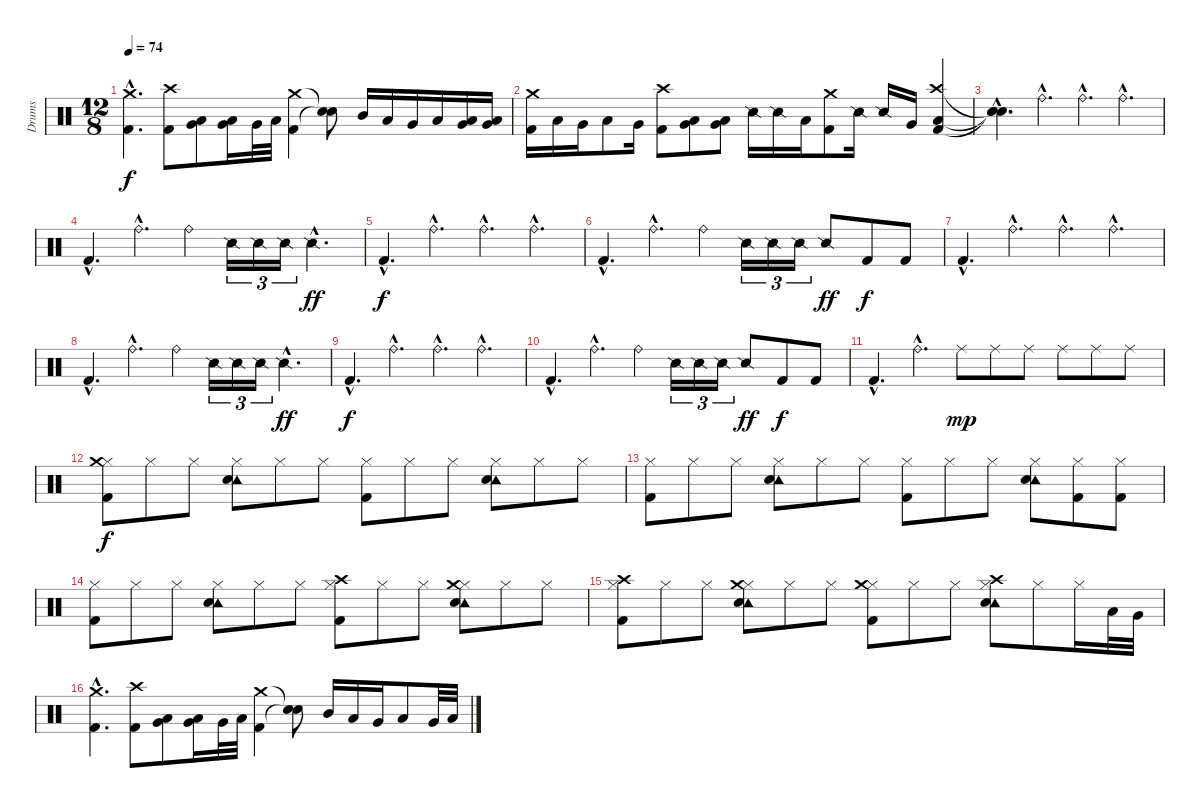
\track ("Drums" "Drums") {instrument percussion}
\staff {score}
\articulation defaults
\ts (12 8)
\tempo 74
\clef neutral
\ks c
("Crash medium (hit)"{hac} "Kick (hit) 2"{hac}).4{d dy f} ("Crash high (hit)" "Kick (hit) 2").8 ("Low Tom (hit)" "Very Low Tom (hit)").8 ("Very Low Tom (hit)" "Low Floor Tom (hit)").16 "Very Low Tom (hit)".32 "Low Floor Tom (hit)".32 ("Crash medium (hit)" "Kick (hit) 2").4 ("Snare (hit)"{t} "Snare (hit)"{t}).8 "Mid Tom (hit)".16 "Low Tom (hit)".16 "Very Low Tom (hit)".16 "Low Floor Tom (hit)".16 ("Low Tom (hit)" "Very Low Tom (hit)").16 ("Very Low Tom (hit)" "Low Floor Tom (hit)").16 |
("Crash medium (hit)" "Kick (hit) 2").16 "Low Tom (hit)".16 "Very Low Tom (hit)".16 "Low Floor Tom (hit)".8 "Very Low Tom (hit)".16 ("Crash high (hit)" "Kick (hit) 2").8 ("Very Low Tom (hit)" "Low Floor Tom (hit)").8 ("Very Low Tom (hit)" "Low Floor Tom (hit)").8 "Snare (side stick) 2".16 "Snare (side stick) 2".16 "Low Tom (hit)".16 ("Crash medium (hit)" "Kick (hit) 2").8 "Snare (side stick) 2".16 "Snare (side stick) 2".16 "Very Low Tom (hit)".16 ("Crash high (hit)" "Low Floor Tom (hit)" "Kick (hit) 2").4 |
("Snare (hit)"{hac t} "Snare (hit)"{hac t} "Snare (hit)"{hac t}).4{d} "Ride (bell)"{hac}.4{d} "Ride (bell)"{hac}.4{d} "Ride (bell)"{hac}.4{d} |
"Kick (hit) 2"{hac}.4{d} "Ride (bell)"{hac}.4{d} "Ride (bell)".4 "Snare (side stick) 2".16{tu (3 2)} "Snare (side stick) 2".16{tu (3 2)} "Snare (side stick) 2".16{tu (3 2)} "Snare (side stick) 2"{hac}.4{d dy ff} |
"Kick (hit) 2"{hac}.4{d dy f} "Ride (bell)"{hac}.4{d} "Ride (bell)"{hac}.4{d} "Ride (bell)"{hac}.4{d} |
"Kick (hit) 2"{hac}.4{d} "Ride (bell)"{hac}.4{d} "Ride (bell)".4 "Snare (side stick) 2".16{tu (3 2)} "Snare (side stick) 2".16{tu (3 2)} "Snare (side stick) 2".16{tu (3 2)} "Snare (side stick) 2".8{dy ff} "Kick (hit) 2".8{dy f} "Kick (hit) 2".8 |
"Kick (hit) 2"{hac}.4{d} "Ride (bell)"{hac}.4{d} "Ride (bell)"{hac}.4{d} "Ride (bell)"{hac}.4{d} |
"Kick (hit) 2"{hac}.4{d} "Ride (bell)"{hac}.4{d} "Ride (bell)".4 "Snare (side stick) 2".16{tu (3 2)} "Snare (side stick) 2".16{tu (3 2)} "Snare (side stick) 2".16{tu (3 2)} "Snare (side stick) 2"{hac}.4{d dy ff} |
"Kick (hit) 2"{hac}.4{d dy f} "Ride (bell)"{hac}.4{d} "Ride (bell)"{hac}.4{d} "Ride (bell)"{hac}.4{d} |
"Kick (hit) 2"{hac}.4{d} "Ride (bell)"{hac}.4{d} "Ride (bell)".4 "Snare (side stick) 2".16{tu (3 2)} "Snare (side stick) 2".16{tu (3 2)} "Snare (side stick) 2".16{tu (3 2)} "Snare (side stick) 2".8{dy ff} "Kick (hit) 2".8{dy f} "Kick (hit) 2".8 |
"Kick (hit) 2"{hac}.4{d} "Ride (bell)"{hac}.4{d} "Ride (middle)".8{dy mp} "Ride (middle)".8 "Ride (middle)".8 "Ride (middle)".8 "Ride (middle)".8 "Ride (middle)".8 |
("Hi-Hat (closed)" "Crash medium (hit)" "Kick (hit) 2").8{dy f} "Hi-Hat (closed)".8 "Hi-Hat (closed)".8 ("Hi-Hat (closed)" "Tambourine (hit)" "Metronome (bell)").8 "Hi-Hat (closed)".8 "Hi-Hat (closed)".8 ("Hi-Hat (closed)" "Kick (hit) 2").8 "Hi-Hat (closed)".8 "Hi-Hat (closed)".8 ("Hi-Hat (closed)" "Tambourine (hit)" "Metronome (bell)").8 "Hi-Hat (closed)".8 "Hi-Hat (closed)".8 |
("Hi-Hat (closed)" "Kick (hit) 2").8 "Hi-Hat (closed)".8 "Hi-Hat (closed)".8 ("Hi-Hat (closed)" "Tambourine (hit)" "Metronome (bell)").8 "Hi-Hat (closed)".8 "Hi-Hat (closed)".8 ("Hi-Hat (closed)" "Kick (hit) 2").8 "Hi-Hat (closed)".8 "Hi-Hat (closed)".8 ("Hi-Hat (closed)" "Tambourine (hit)" "Metronome (bell)").8 ("Hi-Hat (closed)" "Kick (hit) 2").8 ("Hi-Hat (closed)" "Kick (hit) 2").8 |
("Hi-Hat (closed)" "Kick (hit) 2").8 "Hi-Hat (closed)".8 "Hi-Hat (closed)".8 ("Hi-Hat (closed)" "Tambourine (hit)" "Metronome (bell)").8 "Hi-Hat (closed)".8 "Hi-Hat (closed)".8 ("Hi-Hat (closed)" "Crash high (hit)" "Kick (hit) 2").8 "Hi-Hat (closed)".8 "Hi-Hat (closed)".8 ("Hi-Hat (closed)" "Crash medium (hit)" "Tambourine (hit)" "Metronome (bell)").8 "Hi-Hat (closed)".8 "Hi-Hat (closed)".8 |
("Hi-Hat (closed)" "Crash high (hit)" "Kick (hit) 2").8 "Hi-Hat (closed)".8 "Hi-Hat (closed)".8 ("Hi-Hat (closed)" "Crash medium (hit)" "Tambourine (hit)" "Metronome (bell)").8 "Hi-Hat (closed)".8 "Hi-Hat (closed)".8 ("Hi-Hat (closed)" "Crash medium (hit)" "Kick (hit) 2").8 "Hi-Hat (closed)".8 "Hi-Hat (closed)".8 ("Hi-Hat (closed)" "Crash high (hit)" "Tambourine (hit)" "Metronome (bell)").8 "Hi-Hat (closed)".8 "Hi-Hat (closed)".16 "Low Tom (hit)".32 "Very Low Tom (hit)".32 |
("Crash medium (hit)"{hac} "Kick (hit) 2"{hac}).4{d} ("Crash high (hit)" "Kick (hit) 2").8 ("Low Tom (hit)" "Very Low Tom (hit)").8 ("Very Low Tom (hit)" "Low Floor Tom (hit)").16 "Very Low Tom (hit)".32 "Low Floor Tom (hit)".32 ("Crash medium (hit)" "Kick (hit) 2").4 ("Snare (hit)"{t} "Snare (hit)"{t}).8 "Mid Tom (hit)".16 "Low Tom (hit)".16 "Very Low Tom (hit)".16 "Low Floor Tom (hit)".8 "Very Low Tom (hit)".32 "Low Floor Tom (hit)".32
